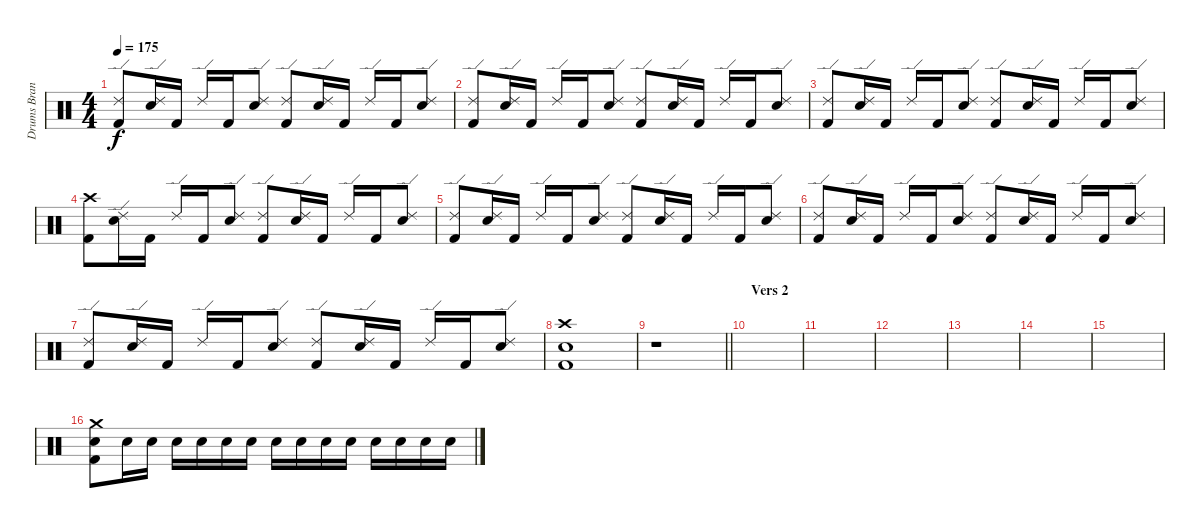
\track ("Drums Brandon" "Drums Bran") {instrument percussion}
\staff {score}
\articulation defaults
\ts (4 4)
\tempo 175
\clef neutral
\ks c
("Ride (edge) 2" "Kick (hit) 2").8{dy f} ("Ride (edge) 2" "Electric Snare (hit)").16 "Kick (hit) 2".16 "Ride (edge) 2".16 "Kick (hit) 2".16 ("Ride (edge) 2" "Electric Snare (hit)").8 ("Ride (edge) 2" "Kick (hit) 2").8 ("Ride (edge) 2" "Electric Snare (hit)").16 "Kick (hit) 2".16 "Ride (edge) 2".16 "Kick (hit) 2".16 ("Ride (edge) 2" "Electric Snare (hit)").8 |
("Ride (edge) 2" "Kick (hit) 2").8 ("Ride (edge) 2" "Electric Snare (hit)").16 "Kick (hit) 2".16 "Ride (edge) 2".16 "Kick (hit) 2".16 ("Ride (edge) 2" "Electric Snare (hit)").8 ("Ride (edge) 2" "Kick (hit) 2").8 ("Ride (edge) 2" "Electric Snare (hit)").16 "Kick (hit) 2".16 "Ride (edge) 2".16 "Kick (hit) 2".16 ("Ride (edge) 2" "Electric Snare (hit)").8 |
("Ride (edge) 2" "Kick (hit) 2").8 ("Ride (edge) 2" "Electric Snare (hit)").16 "Kick (hit) 2".16 "Ride (edge) 2".16 "Kick (hit) 2".16 ("Ride (edge) 2" "Electric Snare (hit)").8 ("Ride (edge) 2" "Kick (hit) 2").8 ("Ride (edge) 2" "Electric Snare (hit)").16 "Kick (hit) 2".16 "Ride (edge) 2".16 "Kick (hit) 2".16 ("Ride (edge) 2" "Electric Snare (hit)").8 |
("Crash high (hit)" "Kick (hit) 2").8 ("Ride (edge) 2" "Electric Snare (hit)").16 "Kick (hit) 2".16 "Ride (edge) 2".16 "Kick (hit) 2".16 ("Ride (edge) 2" "Electric Snare (hit)").8 ("Ride (edge) 2" "Kick (hit) 2").8 ("Ride (edge) 2" "Electric Snare (hit)").16 "Kick (hit) 2".16 "Ride (edge) 2".16 "Kick (hit) 2".16 ("Ride (edge) 2" "Electric Snare (hit)").8 |
("Ride (edge) 2" "Kick (hit) 2").8 ("Ride (edge) 2" "Electric Snare (hit)").16 "Kick (hit) 2".16 "Ride (edge) 2".16 "Kick (hit) 2".16 ("Ride (edge) 2" "Electric Snare (hit)").8 ("Ride (edge) 2" "Kick (hit) 2").8 ("Ride (edge) 2" "Electric Snare (hit)").16 "Kick (hit) 2".16 "Ride (edge) 2".16 "Kick (hit) 2".16 ("Ride (edge) 2" "Electric Snare (hit)").8 |
("Ride (edge) 2" "Kick (hit) 2").8 ("Ride (edge) 2" "Electric Snare (hit)").16 "Kick (hit) 2".16 "Ride (edge) 2".16 "Kick (hit) 2".16 ("Ride (edge) 2" "Electric Snare (hit)").8 ("Ride (edge) 2" "Kick (hit) 2").8 ("Ride (edge) 2" "Electric Snare (hit)").16 "Kick (hit) 2".16 "Ride (edge) 2".16 "Kick (hit) 2".16 ("Ride (edge) 2" "Electric Snare (hit)").8 |
("Ride (edge) 2" "Kick (hit) 2").8 ("Ride (edge) 2" "Electric Snare (hit)").16 "Kick (hit) 2".16 "Ride (edge) 2".16 "Kick (hit) 2".16 ("Ride (edge) 2" "Electric Snare (hit)").8 ("Ride (edge) 2" "Kick (hit) 2").8 ("Ride (edge) 2" "Electric Snare (hit)").16 "Kick (hit) 2".16 "Ride (edge) 2".16 "Kick (hit) 2".16 ("Ride (edge) 2" "Electric Snare (hit)").8 |
("Crash high (hit)" "Electric Snare (hit)" "Kick (hit) 2").1 |
\barLineRight lightlight
r.1 |
\section ("" "Vers 2")
|
|
|
|
|
|
("Crash medium (hit)" "Electric Snare (hit)" "Kick (hit) 2").8 "Electric Snare (hit)".16 "Electric Snare (hit)".16 "Electric Snare (hit)".16 "Electric Snare (hit)".16 "Electric Snare (hit)".16 "Electric Snare (hit)".16 "Electric Snare (hit)".16 "Electric Snare (hit)".16 "Electric Snare (hit)".16 "Electric Snare (hit)".16 "Electric Snare (hit)".16 "Electric Snare (hit)".16 "Electric Snare (hit)".16 "Electric Snare (hit)".16
